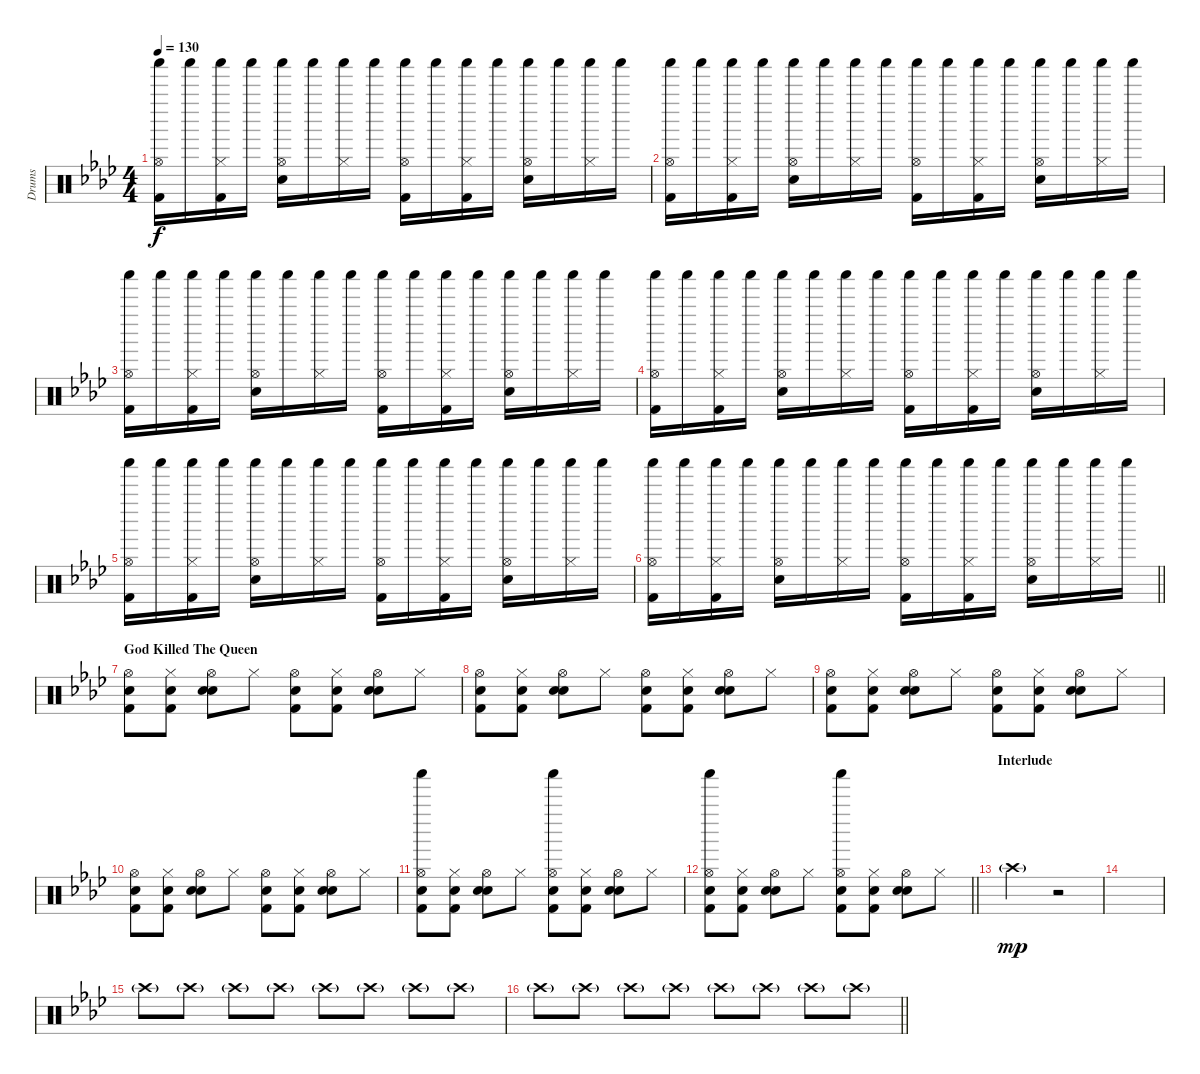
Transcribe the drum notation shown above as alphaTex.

\track ("Drums" "Drums") {instrument percussion}
\staff {score}
\articulation defaults
\ts (4 4)
\tempo 130
\clef neutral
\ks fminor
("Shaker (hit)" "Hi-Hat (open)" "Kick (hit) 2").16{dy f} "Shaker (hit)".16 ("Shaker (hit)" "Hi-Hat (closed)" "Kick (hit) 2").16 "Shaker (hit)".16 ("Shaker (hit)" "Hi-Hat (open)" "Electric Snare (hit)").16 "Shaker (hit)".16 ("Shaker (hit)" "Hi-Hat (closed)").16 "Shaker (hit)".16 ("Shaker (hit)" "Hi-Hat (open)" "Kick (hit) 2").16 "Shaker (hit)".16 ("Shaker (hit)" "Hi-Hat (closed)" "Kick (hit) 2").16 "Shaker (hit)".16 ("Shaker (hit)" "Hi-Hat (open)" "Electric Snare (hit)").16 "Shaker (hit)".16 ("Shaker (hit)" "Hi-Hat (closed)").16 "Shaker (hit)".16 |
("Shaker (hit)" "Hi-Hat (open)" "Kick (hit) 2").16 "Shaker (hit)".16 ("Shaker (hit)" "Hi-Hat (closed)" "Kick (hit) 2").16 "Shaker (hit)".16 ("Shaker (hit)" "Hi-Hat (open)" "Electric Snare (hit)").16 "Shaker (hit)".16 ("Shaker (hit)" "Hi-Hat (closed)").16 "Shaker (hit)".16 ("Shaker (hit)" "Hi-Hat (open)" "Kick (hit) 2").16 "Shaker (hit)".16 ("Shaker (hit)" "Hi-Hat (closed)" "Kick (hit) 2").16 "Shaker (hit)".16 ("Shaker (hit)" "Hi-Hat (open)" "Electric Snare (hit)").16 "Shaker (hit)".16 ("Shaker (hit)" "Hi-Hat (closed)").16 "Shaker (hit)".16 |
("Shaker (hit)" "Hi-Hat (open)" "Kick (hit) 2").16 "Shaker (hit)".16 ("Shaker (hit)" "Hi-Hat (closed)" "Kick (hit) 2").16 "Shaker (hit)".16 ("Shaker (hit)" "Hi-Hat (open)" "Electric Snare (hit)").16 "Shaker (hit)".16 ("Shaker (hit)" "Hi-Hat (closed)").16 "Shaker (hit)".16 ("Shaker (hit)" "Hi-Hat (open)" "Kick (hit) 2").16 "Shaker (hit)".16 ("Shaker (hit)" "Hi-Hat (closed)" "Kick (hit) 2").16 "Shaker (hit)".16 ("Shaker (hit)" "Hi-Hat (open)" "Electric Snare (hit)").16 "Shaker (hit)".16 ("Shaker (hit)" "Hi-Hat (closed)").16 "Shaker (hit)".16 |
("Shaker (hit)" "Hi-Hat (open)" "Kick (hit) 2").16 "Shaker (hit)".16 ("Shaker (hit)" "Hi-Hat (closed)" "Kick (hit) 2").16 "Shaker (hit)".16 ("Shaker (hit)" "Hi-Hat (open)" "Electric Snare (hit)").16 "Shaker (hit)".16 ("Shaker (hit)" "Hi-Hat (closed)").16 "Shaker (hit)".16 ("Shaker (hit)" "Hi-Hat (open)" "Kick (hit) 2").16 "Shaker (hit)".16 ("Shaker (hit)" "Hi-Hat (closed)" "Kick (hit) 2").16 "Shaker (hit)".16 ("Shaker (hit)" "Hi-Hat (open)" "Electric Snare (hit)").16 "Shaker (hit)".16 ("Shaker (hit)" "Hi-Hat (closed)").16 "Shaker (hit)".16 |
("Shaker (hit)" "Hi-Hat (open)" "Kick (hit) 2").16 "Shaker (hit)".16 ("Shaker (hit)" "Hi-Hat (closed)" "Kick (hit) 2").16 "Shaker (hit)".16 ("Shaker (hit)" "Hi-Hat (open)" "Electric Snare (hit)").16 "Shaker (hit)".16 ("Shaker (hit)" "Hi-Hat (closed)").16 "Shaker (hit)".16 ("Shaker (hit)" "Hi-Hat (open)" "Kick (hit) 2").16 "Shaker (hit)".16 ("Shaker (hit)" "Hi-Hat (closed)" "Kick (hit) 2").16 "Shaker (hit)".16 ("Shaker (hit)" "Hi-Hat (open)" "Electric Snare (hit)").16 "Shaker (hit)".16 ("Shaker (hit)" "Hi-Hat (closed)").16 "Shaker (hit)".16 |
\barLineRight lightlight
("Shaker (hit)" "Hi-Hat (open)" "Kick (hit) 2").16 "Shaker (hit)".16 ("Shaker (hit)" "Hi-Hat (closed)" "Kick (hit) 2").16 "Shaker (hit)".16 ("Shaker (hit)" "Hi-Hat (open)" "Electric Snare (hit)").16 "Shaker (hit)".16 ("Shaker (hit)" "Hi-Hat (closed)").16 "Shaker (hit)".16 ("Shaker (hit)" "Hi-Hat (open)" "Kick (hit) 2").16 "Shaker (hit)".16 ("Shaker (hit)" "Hi-Hat (closed)" "Kick (hit) 2").16 "Shaker (hit)".16 ("Shaker (hit)" "Hi-Hat (open)" "Electric Snare (hit)").16 "Shaker (hit)".16 ("Shaker (hit)" "Hi-Hat (closed)").16 "Shaker (hit)".16 |
\section ("" "God Killed The Queen")
("Hi-Hat (open)" "Hand Clap (hit)" "Kick (hit) 2").8 ("Hi-Hat (closed)" "Hand Clap (hit)" "Kick (hit) 2").8 ("Hi-Hat (open)" "Hand Clap (hit)" "Electric Snare (hit)").8 "Hi-Hat (closed)".8 ("Hi-Hat (open)" "Hand Clap (hit)" "Kick (hit) 2").8 ("Hi-Hat (closed)" "Hand Clap (hit)" "Kick (hit) 2").8 ("Hi-Hat (open)" "Hand Clap (hit)" "Electric Snare (hit)").8 "Hi-Hat (closed)".8 |
("Hi-Hat (open)" "Hand Clap (hit)" "Kick (hit) 2").8 ("Hi-Hat (closed)" "Hand Clap (hit)" "Kick (hit) 2").8 ("Hi-Hat (open)" "Hand Clap (hit)" "Electric Snare (hit)").8 "Hi-Hat (closed)".8 ("Hi-Hat (open)" "Hand Clap (hit)" "Kick (hit) 2").8 ("Hi-Hat (closed)" "Hand Clap (hit)" "Kick (hit) 2").8 ("Hi-Hat (open)" "Hand Clap (hit)" "Electric Snare (hit)").8 "Hi-Hat (closed)".8 |
("Hi-Hat (open)" "Hand Clap (hit)" "Kick (hit) 2").8 ("Hi-Hat (closed)" "Hand Clap (hit)" "Kick (hit) 2").8 ("Hi-Hat (open)" "Hand Clap (hit)" "Electric Snare (hit)").8 "Hi-Hat (closed)".8 ("Hi-Hat (open)" "Hand Clap (hit)" "Kick (hit) 2").8 ("Hi-Hat (closed)" "Hand Clap (hit)" "Kick (hit) 2").8 ("Hi-Hat (open)" "Hand Clap (hit)" "Electric Snare (hit)").8 "Hi-Hat (closed)".8 |
("Hi-Hat (open)" "Hand Clap (hit)" "Kick (hit) 2").8 ("Hi-Hat (closed)" "Hand Clap (hit)" "Kick (hit) 2").8 ("Hi-Hat (open)" "Hand Clap (hit)" "Electric Snare (hit)").8 "Hi-Hat (closed)".8 ("Hi-Hat (open)" "Hand Clap (hit)" "Kick (hit) 2").8 ("Hi-Hat (closed)" "Hand Clap (hit)" "Kick (hit) 2").8 ("Hi-Hat (open)" "Hand Clap (hit)" "Electric Snare (hit)").8 "Hi-Hat (closed)".8 |
("Hi-Hat (open)" "Hand Clap (hit)" "Shaker (hit)" "Kick (hit) 2").8 ("Hi-Hat (closed)" "Hand Clap (hit)" "Kick (hit) 2").8 ("Hi-Hat (open)" "Hand Clap (hit)" "Electric Snare (hit)").8 "Hi-Hat (closed)".8 ("Hi-Hat (open)" "Hand Clap (hit)" "Shaker (hit)" "Kick (hit) 2").8 ("Hi-Hat (closed)" "Hand Clap (hit)" "Kick (hit) 2").8 ("Hi-Hat (open)" "Hand Clap (hit)" "Electric Snare (hit)").8 "Hi-Hat (closed)".8 |
\barLineRight lightlight
("Hi-Hat (open)" "Hand Clap (hit)" "Shaker (hit)" "Kick (hit) 2").8 ("Hi-Hat (closed)" "Hand Clap (hit)" "Kick (hit) 2").8 ("Hi-Hat (open)" "Hand Clap (hit)" "Electric Snare (hit)").8 "Hi-Hat (closed)".8 ("Hi-Hat (open)" "Hand Clap (hit)" "Shaker (hit)" "Kick (hit) 2").8 ("Hi-Hat (closed)" "Hand Clap (hit)" "Kick (hit) 2").8 ("Hi-Hat (open)" "Hand Clap (hit)" "Electric Snare (hit)").8 "Hi-Hat (closed)".8 |
\section ("" "Interlude")
"Crash high (hit)"{g}.2{dy mp volume 0} r.2 |
|
"Crash high (hit)"{g}.8{volume 1} "Crash high (hit)"{g}.8 "Crash high (hit)"{g}.8{volume 2} "Crash high (hit)"{g}.8 "Crash high (hit)"{g}.8{volume 3} "Crash high (hit)"{g}.8 "Crash high (hit)"{g}.8{volume 5} "Crash high (hit)"{g}.8 |
\barLineRight lightlight "Crash high (hit)"{g}.8{volume 6} "Crash high (hit)"{g}.8 "Crash high (hit)"{g}.8{volume 7} "Crash high (hit)"{g}.8 "Crash high (hit)"{g}.8{volume 8} "Crash high (hit)"{g}.8 "Crash high (hit)"{g}.8{volume 10} "Crash high (hit)"{g}.8
